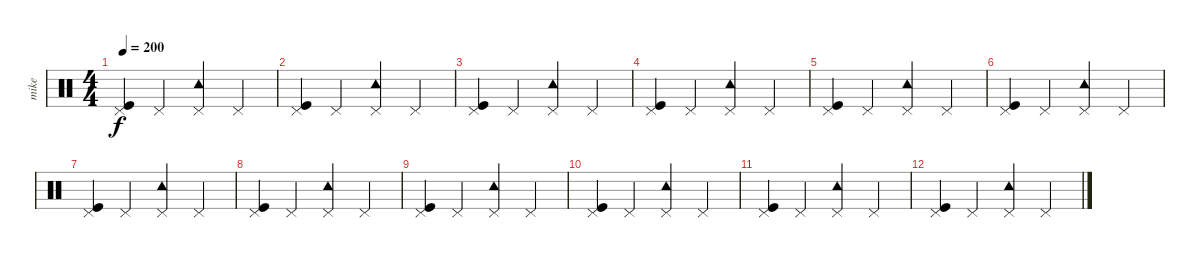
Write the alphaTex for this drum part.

\track ("mike" "mike") {instrument percussion}
\staff {score}
\articulation defaults
\ts (4 4)
\tempo 200
\clef neutral
\ks c
("Pedal Hi-Hat (hit)" "Kick (hit)").4{dy f} "Pedal Hi-Hat (hit)".4 ("Pedal Hi-Hat (hit)" "Tambourine (hit)").4 "Pedal Hi-Hat (hit)".4 |
("Pedal Hi-Hat (hit)" "Kick (hit)").4 "Pedal Hi-Hat (hit)".4 ("Pedal Hi-Hat (hit)" "Tambourine (hit)").4 "Pedal Hi-Hat (hit)".4 |
("Pedal Hi-Hat (hit)" "Kick (hit)").4 "Pedal Hi-Hat (hit)".4 ("Pedal Hi-Hat (hit)" "Tambourine (hit)").4 "Pedal Hi-Hat (hit)".4 |
("Pedal Hi-Hat (hit)" "Kick (hit)").4 "Pedal Hi-Hat (hit)".4 ("Pedal Hi-Hat (hit)" "Tambourine (hit)").4 "Pedal Hi-Hat (hit)".4 |
("Pedal Hi-Hat (hit)" "Kick (hit)").4 "Pedal Hi-Hat (hit)".4 ("Pedal Hi-Hat (hit)" "Tambourine (hit)").4 "Pedal Hi-Hat (hit)".4 |
("Pedal Hi-Hat (hit)" "Kick (hit)").4 "Pedal Hi-Hat (hit)".4 ("Pedal Hi-Hat (hit)" "Tambourine (hit)").4 "Pedal Hi-Hat (hit)".4 |
("Pedal Hi-Hat (hit)" "Kick (hit)").4 "Pedal Hi-Hat (hit)".4 ("Pedal Hi-Hat (hit)" "Tambourine (hit)").4 "Pedal Hi-Hat (hit)".4 |
("Pedal Hi-Hat (hit)" "Kick (hit)").4 "Pedal Hi-Hat (hit)".4 ("Pedal Hi-Hat (hit)" "Tambourine (hit)").4 "Pedal Hi-Hat (hit)".4 |
("Pedal Hi-Hat (hit)" "Kick (hit)").4 "Pedal Hi-Hat (hit)".4 ("Pedal Hi-Hat (hit)" "Tambourine (hit)").4 "Pedal Hi-Hat (hit)".4 |
("Pedal Hi-Hat (hit)" "Kick (hit)").4 "Pedal Hi-Hat (hit)".4 ("Pedal Hi-Hat (hit)" "Tambourine (hit)").4 "Pedal Hi-Hat (hit)".4 |
("Pedal Hi-Hat (hit)" "Kick (hit)").4 "Pedal Hi-Hat (hit)".4 ("Pedal Hi-Hat (hit)" "Tambourine (hit)").4 "Pedal Hi-Hat (hit)".4 |
("Pedal Hi-Hat (hit)" "Kick (hit)").4 "Pedal Hi-Hat (hit)".4 ("Pedal Hi-Hat (hit)" "Tambourine (hit)").4 "Pedal Hi-Hat (hit)".4
